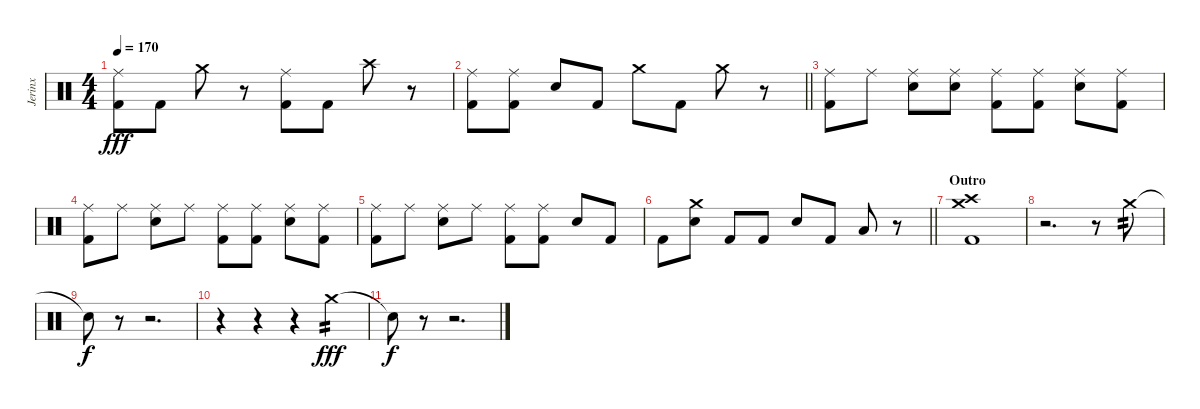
\track ("Jerinx" "Jerinx") {instrument percussion}
\staff {score}
\articulation defaults
\ts (4 4)
\tempo 170
\clef neutral
\ks c
("Kick (hit) 2" "Ride (middle)").8{dy fff} "Kick (hit) 2".8 "Crash medium (hit)".8 r.8 ("Kick (hit) 2" "Ride (middle)").8 "Kick (hit) 2".8 "Crash high (hit)".8 r.8 |
\barLineRight lightlight
("Kick (hit) 2" "Ride (middle)").8 ("Kick (hit) 2" "Ride (middle)").8 "Snare (hit) 2".8 "Kick (hit) 2".8 "Crash medium (hit)".8 "Kick (hit) 2".8 "Crash medium (hit)".8 r.8 |
("Kick (hit) 2" "Ride (middle)").8 "Ride (middle)".8 ("Snare (hit) 2" "Ride (middle)").8 ("Snare (hit) 2" "Ride (middle)").8 ("Kick (hit) 2" "Ride (middle)").8 ("Kick (hit) 2" "Ride (middle)").8 ("Snare (hit) 2" "Ride (middle)").8 ("Kick (hit) 2" "Ride (middle)").8 |
("Kick (hit) 2" "Ride (middle)").8 "Ride (middle)".8 ("Snare (hit) 2" "Ride (middle)").8 "Ride (middle)".8 ("Kick (hit) 2" "Ride (middle)").8 ("Kick (hit) 2" "Ride (middle)").8 ("Snare (hit) 2" "Ride (middle)").8 ("Kick (hit) 2" "Ride (middle)").8 |
("Kick (hit) 2" "Ride (middle)").8 "Ride (middle)".8 ("Snare (hit) 2" "Ride (middle)").8 "Ride (middle)".8 ("Kick (hit) 2" "Ride (middle)").8 ("Kick (hit) 2" "Ride (middle)").8 "Snare (hit) 2".8 "Kick (hit) 2".8 |
\barLineRight lightlight "Kick (hit) 2".8
("Snare (hit) 2" "Crash medium (hit)").8 "Kick (hit) 2".8 "Kick (hit) 2".8 "Snare (hit) 2".8 "Kick (hit) 2".8 "Low Tom (hit)".8 r.8 |
\section ("" "Outro")
("Kick (hit) 2" "Crash high (hit)" "Crash medium (hit)").1 |
r.2{d} r.8{volume 3} "Crash medium (hit)".8{tp 2 volume 10} |
"Snare (hit)"{t}.8{dy f} r.8 r.2{d} |
r.4 r.4 r.4{volume 0} "Crash medium (hit)".4{tp 2 dy fff volume 10} |
"Snare (hit)"{t}.8{dy f} r.8 r.2{d}
